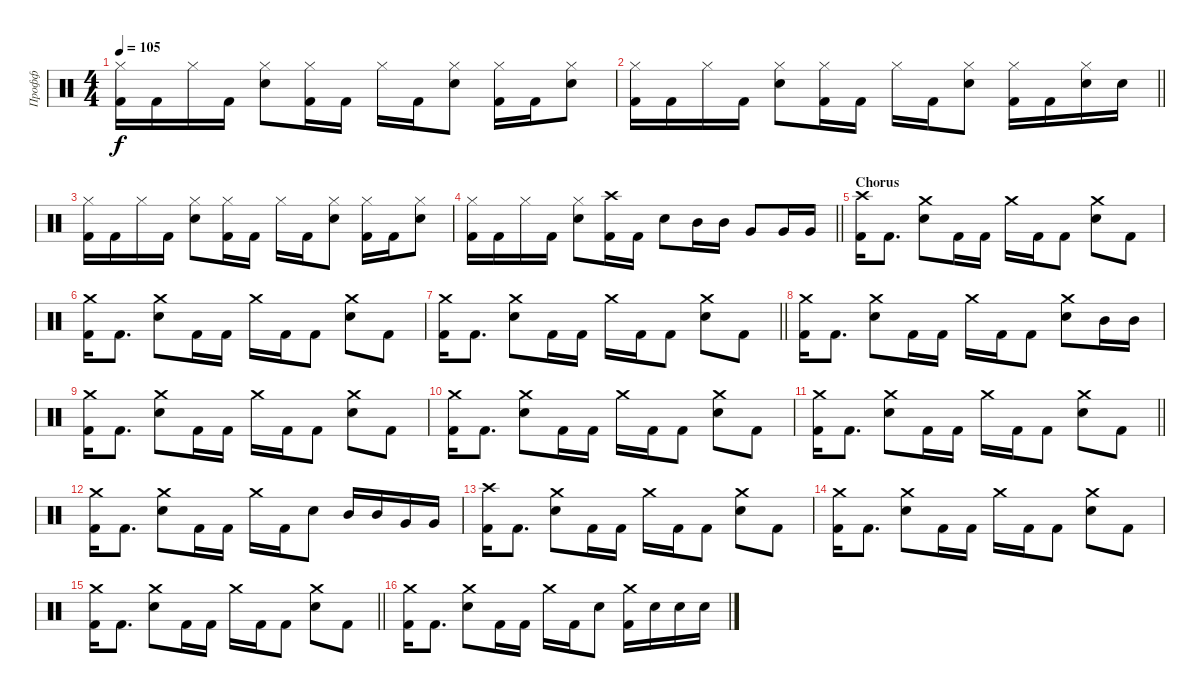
\track ("Профф" "Профф") {instrument percussion}
\staff {score}
\articulation defaults
\ts (4 4)
\tempo 105
\clef neutral
\ks c
("Hi-Hat (closed)" "Kick (hit) 2").16{dy f} "Kick (hit) 2".16 "Hi-Hat (closed)".16 "Kick (hit) 2".16 ("Hi-Hat (closed)" "Snare (hit) 2").8 ("Hi-Hat (closed)" "Kick (hit) 2").16 "Kick (hit) 2".16 "Hi-Hat (closed)".16 "Kick (hit) 2".16 ("Hi-Hat (closed)" "Snare (hit) 2").8 ("Hi-Hat (closed)" "Kick (hit) 2").16 "Kick (hit) 2".16 ("Hi-Hat (closed)" "Snare (hit) 2").8 |
\barLineRight lightlight
("Hi-Hat (closed)" "Kick (hit) 2").16 "Kick (hit) 2".16 "Hi-Hat (closed)".16 "Kick (hit) 2".16 ("Hi-Hat (closed)" "Snare (hit) 2").8 ("Hi-Hat (closed)" "Kick (hit) 2").16 "Kick (hit) 2".16 "Hi-Hat (closed)".16 "Kick (hit) 2".16 ("Hi-Hat (closed)" "Snare (hit) 2").8 ("Hi-Hat (closed)" "Kick (hit) 2").16 "Kick (hit) 2".16 ("Hi-Hat (closed)" "Snare (hit) 2").16 "Snare (hit) 2".16 |
("Hi-Hat (closed)" "Kick (hit) 2").16 "Kick (hit) 2".16 "Hi-Hat (closed)".16 "Kick (hit) 2".16 ("Hi-Hat (closed)" "Snare (hit) 2").8 ("Hi-Hat (closed)" "Kick (hit) 2").16 "Kick (hit) 2".16 "Hi-Hat (closed)".16 "Kick (hit) 2".16 ("Hi-Hat (closed)" "Snare (hit) 2").8 ("Hi-Hat (closed)" "Kick (hit) 2").16 "Kick (hit) 2".16 ("Hi-Hat (closed)" "Snare (hit) 2").8 |
\barLineRight lightlight
("Hi-Hat (closed)" "Kick (hit) 2").16 "Kick (hit) 2".16 "Hi-Hat (closed)".16 "Kick (hit) 2".16 ("Hi-Hat (closed)" "Snare (hit) 2").8 ("Crash high (hit)" "Kick (hit) 2").16 "Kick (hit) 2".16 "Snare (hit) 2".8 "Mid Tom (hit)".16 "Mid Tom (hit)".16 "Very Low Tom (hit)".8 "Very Low Tom (hit)".16 "Very Low Tom (hit)".16 |
\section ("" "Chorus")
("Crash high (hit)" "Kick (hit) 2").16 "Kick (hit) 2".8{d} ("Crash medium (hit)" "Snare (hit) 2").8 "Kick (hit) 2".16 "Kick (hit) 2".16 "Crash medium (hit)".16 "Kick (hit) 2".16 "Kick (hit) 2".8 ("Crash medium (hit)" "Snare (hit) 2").8 "Kick (hit) 2".8 |
("Crash medium (hit)" "Kick (hit) 2").16 "Kick (hit) 2".8{d} ("Crash medium (hit)" "Snare (hit) 2").8 "Kick (hit) 2".16 "Kick (hit) 2".16 "Crash medium (hit)".16 "Kick (hit) 2".16 "Kick (hit) 2".8 ("Crash medium (hit)" "Snare (hit) 2").8 "Kick (hit) 2".8 |
\barLineRight lightlight
("Crash medium (hit)" "Kick (hit) 2").16 "Kick (hit) 2".8{d} ("Crash medium (hit)" "Snare (hit) 2").8 "Kick (hit) 2".16 "Kick (hit) 2".16 "Crash medium (hit)".16 "Kick (hit) 2".16 "Kick (hit) 2".8 ("Crash medium (hit)" "Snare (hit) 2").8 "Kick (hit) 2".8 |
("Crash medium (hit)" "Kick (hit) 2").16 "Kick (hit) 2".8{d} ("Crash medium (hit)" "Snare (hit) 2").8 "Kick (hit) 2".16 "Kick (hit) 2".16 "Crash medium (hit)".16 "Kick (hit) 2".16 "Kick (hit) 2".8 ("Crash medium (hit)" "Snare (hit) 2").8 "Mid Tom (hit)".16 "Mid Tom (hit)".16 |
("Crash medium (hit)" "Kick (hit) 2").16 "Kick (hit) 2".8{d} ("Crash medium (hit)" "Snare (hit) 2").8 "Kick (hit) 2".16 "Kick (hit) 2".16 "Crash medium (hit)".16 "Kick (hit) 2".16 "Kick (hit) 2".8 ("Crash medium (hit)" "Snare (hit) 2").8 "Kick (hit) 2".8 |
("Crash medium (hit)" "Kick (hit) 2").16 "Kick (hit) 2".8{d} ("Crash medium (hit)" "Snare (hit) 2").8 "Kick (hit) 2".16 "Kick (hit) 2".16 "Crash medium (hit)".16 "Kick (hit) 2".16 "Kick (hit) 2".8 ("Crash medium (hit)" "Snare (hit) 2").8 "Kick (hit) 2".8 |
\barLineRight lightlight
("Crash medium (hit)" "Kick (hit) 2").16 "Kick (hit) 2".8{d} ("Crash medium (hit)" "Snare (hit) 2").8 "Kick (hit) 2".16 "Kick (hit) 2".16 "Crash medium (hit)".16 "Kick (hit) 2".16 "Kick (hit) 2".8 ("Crash medium (hit)" "Snare (hit) 2").8 "Kick (hit) 2".8 |
("Crash medium (hit)" "Kick (hit) 2").16 "Kick (hit) 2".8{d} ("Crash medium (hit)" "Snare (hit) 2").8 "Kick (hit) 2".16 "Kick (hit) 2".16 "Crash medium (hit)".16 "Kick (hit) 2".16 "Snare (hit) 2".8 "Mid Tom (hit)".16 "Mid Tom (hit)".16 "Very Low Tom (hit)".16 "Very Low Tom (hit)".16 |
("Crash high (hit)" "Kick (hit) 2").16 "Kick (hit) 2".8{d} ("Crash medium (hit)" "Snare (hit) 2").8 "Kick (hit) 2".16 "Kick (hit) 2".16 "Crash medium (hit)".16 "Kick (hit) 2".16 "Kick (hit) 2".8 ("Crash medium (hit)" "Snare (hit) 2").8 "Kick (hit) 2".8 |
("Crash medium (hit)" "Kick (hit) 2").16 "Kick (hit) 2".8{d} ("Crash medium (hit)" "Snare (hit) 2").8 "Kick (hit) 2".16 "Kick (hit) 2".16 "Crash medium (hit)".16 "Kick (hit) 2".16 "Kick (hit) 2".8 ("Crash medium (hit)" "Snare (hit) 2").8 "Kick (hit) 2".8 |
\barLineRight lightlight
("Crash medium (hit)" "Kick (hit) 2").16 "Kick (hit) 2".8{d} ("Crash medium (hit)" "Snare (hit) 2").8 "Kick (hit) 2".16 "Kick (hit) 2".16 "Crash medium (hit)".16 "Kick (hit) 2".16 "Kick (hit) 2".8 ("Crash medium (hit)" "Snare (hit) 2").8 "Kick (hit) 2".8 |
("Crash medium (hit)" "Kick (hit) 2").16 "Kick (hit) 2".8{d} ("Crash medium (hit)" "Snare (hit) 2").8 "Kick (hit) 2".16 "Kick (hit) 2".16 "Crash medium (hit)".16 "Kick (hit) 2".16 "Snare (hit) 2".8 ("Crash medium (hit)" "Kick (hit) 2").16 "Snare (hit) 2".16 "Snare (hit) 2".16 "Snare (hit) 2".16
